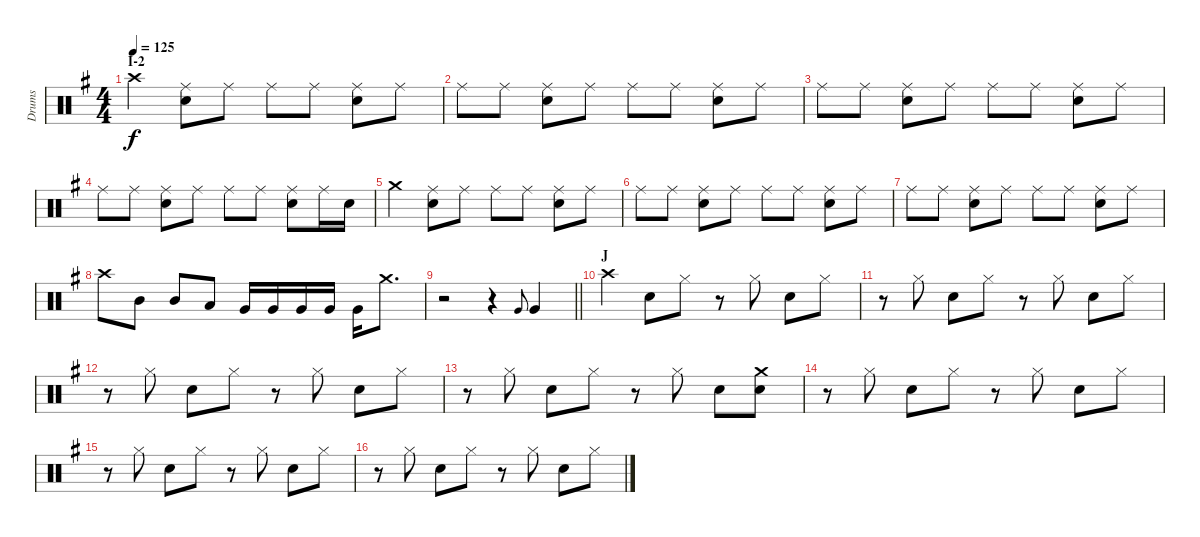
\track ("Drums" "Drums") {instrument percussion}
\staff {score}
\articulation defaults
\ts (4 4)
\section ("" "I-2")
\tempo 125
\clef neutral
\ks g "Crash high (hit)".4{dy f}
("Ride (middle)" "Snare (hit) 2").8 "Ride (middle)".8 "Ride (middle)".8 "Ride (middle)".8 ("Ride (middle)" "Snare (hit) 2").8 "Ride (middle)".8 |
"Ride (middle)".8 "Ride (middle)".8 ("Ride (middle)" "Snare (hit) 2").8 "Ride (middle)".8 "Ride (middle)".8 "Ride (middle)".8 ("Ride (middle)" "Snare (hit) 2").8 "Ride (middle)".8 |
"Ride (middle)".8 "Ride (middle)".8 ("Ride (middle)" "Snare (hit) 2").8 "Ride (middle)".8 "Ride (middle)".8 "Ride (middle)".8 ("Ride (middle)" "Snare (hit) 2").8 "Ride (middle)".8 |
"Ride (middle)".8 "Ride (middle)".8 ("Ride (middle)" "Snare (hit) 2").8 "Ride (middle)".8 "Ride (middle)".8 "Ride (middle)".8 ("Ride (middle)" "Snare (hit) 2").8 "Ride (middle)".16 "Snare (hit) 2".16 |
"Crash medium (hit)".4 ("Ride (middle)" "Snare (hit) 2").8 "Ride (middle)".8 "Ride (middle)".8 "Ride (middle)".8 ("Ride (middle)" "Snare (hit) 2").8 "Ride (middle)".8 |
"Ride (middle)".8 "Ride (middle)".8 ("Ride (middle)" "Snare (hit) 2").8 "Ride (middle)".8 "Ride (middle)".8 "Ride (middle)".8 ("Ride (middle)" "Snare (hit) 2").8 "Ride (middle)".8 |
"Ride (middle)".8 "Ride (middle)".8 ("Ride (middle)" "Snare (hit) 2").8 "Ride (middle)".8 "Ride (middle)".8 "Ride (middle)".8 ("Ride (middle)" "Snare (hit) 2").8 "Ride (middle)".8 |
"Crash high (hit)".8 "Mid Tom (hit)".8 "Mid Tom (hit)".8 "Low Tom (hit)".8 "Very Low Tom (hit)".16 "Very Low Tom (hit)".16 "Very Low Tom (hit)".16 "Very Low Tom (hit)".16 "Very Low Tom (hit)".16 "Crash medium (hit)".8{d} |
\barLineRight lightlight
r.2 r.4 "Very Low Tom (hit)".8{gr onbeat} "Very Low Tom (hit)".4 |
\section ("" "J")
"Crash high (hit)".4 "Snare (hit) 2".8 "Hi-Hat (closed)".8 r.8 "Hi-Hat (closed)".8 "Snare (hit) 2".8 "Hi-Hat (closed)".8 |
r.8 "Hi-Hat (closed)".8 "Snare (hit) 2".8 "Hi-Hat (closed)".8 r.8 "Hi-Hat (closed)".8 "Snare (hit) 2".8 "Hi-Hat (closed)".8 |
r.8 "Hi-Hat (closed)".8 "Snare (hit) 2".8 "Hi-Hat (closed)".8 r.8 "Hi-Hat (closed)".8 "Snare (hit) 2".8 "Hi-Hat (closed)".8 |
r.8 "Hi-Hat (closed)".8 "Snare (hit) 2".8 "Hi-Hat (closed)".8 r.8 "Hi-Hat (closed)".8 "Snare (hit) 2".8 ("Crash medium (hit)" "Snare (hit) 2").8 |
r.8 "Hi-Hat (closed)".8 "Snare (hit) 2".8 "Hi-Hat (closed)".8 r.8 "Hi-Hat (closed)".8 "Snare (hit) 2".8 "Hi-Hat (closed)".8 |
r.8 "Hi-Hat (closed)".8 "Snare (hit) 2".8 "Hi-Hat (closed)".8 r.8 "Hi-Hat (closed)".8 "Snare (hit) 2".8 "Hi-Hat (closed)".8 |
r.8 "Hi-Hat (closed)".8 "Snare (hit) 2".8 "Hi-Hat (closed)".8 r.8 "Hi-Hat (closed)".8 "Snare (hit) 2".8 "Hi-Hat (closed)".8
